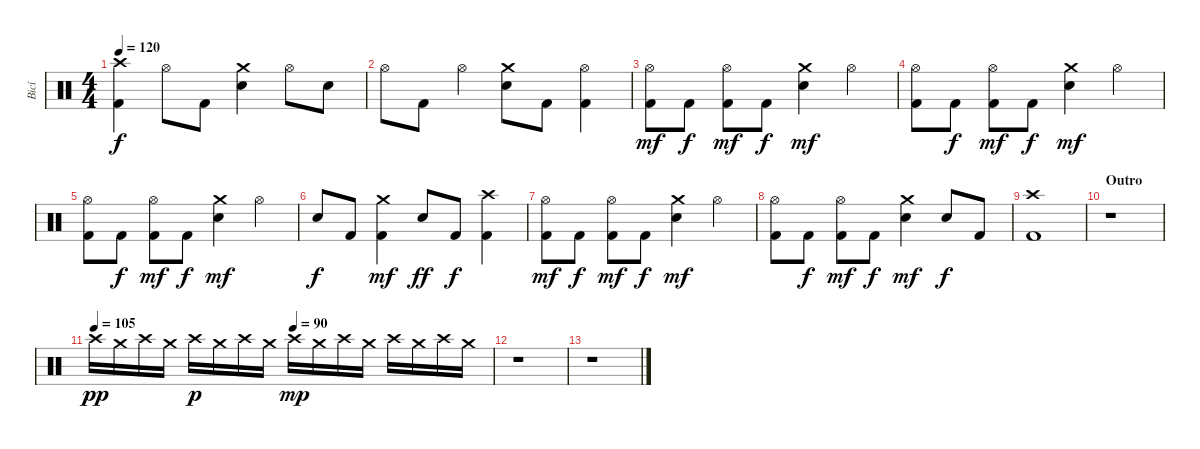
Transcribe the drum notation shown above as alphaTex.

\track ("Bicí" "Bicí") {instrument percussion}
\staff {score}
\articulation defaults
\ts (4 4)
\tempo 120
\clef neutral
\ks c
("Crash high (hit)" "Kick (hit) 2").4{dy f} "Hi-Hat (open)".8 "Kick (hit) 2".8 ("Crash medium (hit)" "Snare (hit) 2").4 "Hi-Hat (open)".8 "Snare (hit) 2".8 |
"Hi-Hat (open)".8 "Kick (hit) 2".8 "Hi-Hat (open)".4 ("Crash medium (hit)" "Snare (hit) 2").8 "Kick (hit) 2".8 ("Hi-Hat (open)" "Kick (hit) 2").4 |
("Hi-Hat (open)" "Kick (hit) 2").8{dy mf} "Kick (hit) 2".8{dy f} ("Hi-Hat (open)" "Kick (hit) 2").8{dy mf} "Kick (hit) 2".8{dy f} ("Crash medium (hit)" "Snare (hit) 2").4{dy mf} "Hi-Hat (open)".4 |
("Hi-Hat (open)" "Kick (hit) 2").8 "Kick (hit) 2".8{dy f} ("Hi-Hat (open)" "Kick (hit) 2").8{dy mf} "Kick (hit) 2".8{dy f} ("Crash medium (hit)" "Snare (hit) 2").4{dy mf} "Hi-Hat (open)".4 |
("Hi-Hat (open)" "Kick (hit) 2").8 "Kick (hit) 2".8{dy f} ("Hi-Hat (open)" "Kick (hit) 2").8{dy mf} "Kick (hit) 2".8{dy f} ("Crash medium (hit)" "Snare (hit) 2").4{dy mf} "Hi-Hat (open)".4 |
"Snare (hit) 2".8{dy f} "Kick (hit) 2".8 ("Crash medium (hit)" "Kick (hit) 2").4{dy mf} "Snare (hit) 2".8{dy ff} "Kick (hit) 2".8{dy f} ("Crash high (hit)" "Kick (hit) 2").4 |
("Hi-Hat (open)" "Kick (hit) 2").8{dy mf} "Kick (hit) 2".8{dy f} ("Hi-Hat (open)" "Kick (hit) 2").8{dy mf} "Kick (hit) 2".8{dy f} ("Crash medium (hit)" "Snare (hit) 2").4{dy mf} "Hi-Hat (open)".4 |
("Hi-Hat (open)" "Kick (hit) 2").8 "Kick (hit) 2".8{dy f} ("Hi-Hat (open)" "Kick (hit) 2").8{dy mf} "Kick (hit) 2".8{dy f} ("Crash medium (hit)" "Snare (hit) 2").4{dy mf} "Snare (hit) 2".8{dy f} "Kick (hit) 2".8 |
("Crash high (hit)" "Kick (hit) 2").1 |
\section ("" "Outro")
r.1 |
\tempo 105
\tempo (90 0.5)
"Crash high (hit)".16{dy pp} "Crash medium (hit)".16 "Crash high (hit)".16 "Crash medium (hit)".16 "Crash high (hit)".16{dy p} "Crash medium (hit)".16 "Crash high (hit)".16 "Crash medium (hit)".16 "Crash high (hit)".16{dy mp} "Crash medium (hit)".16 "Crash high (hit)".16 "Crash medium (hit)".16 "Crash high (hit)".16 "Crash medium (hit)".16 "Crash high (hit)".16 "Crash medium (hit)".16 |
r.1 |
r.1
